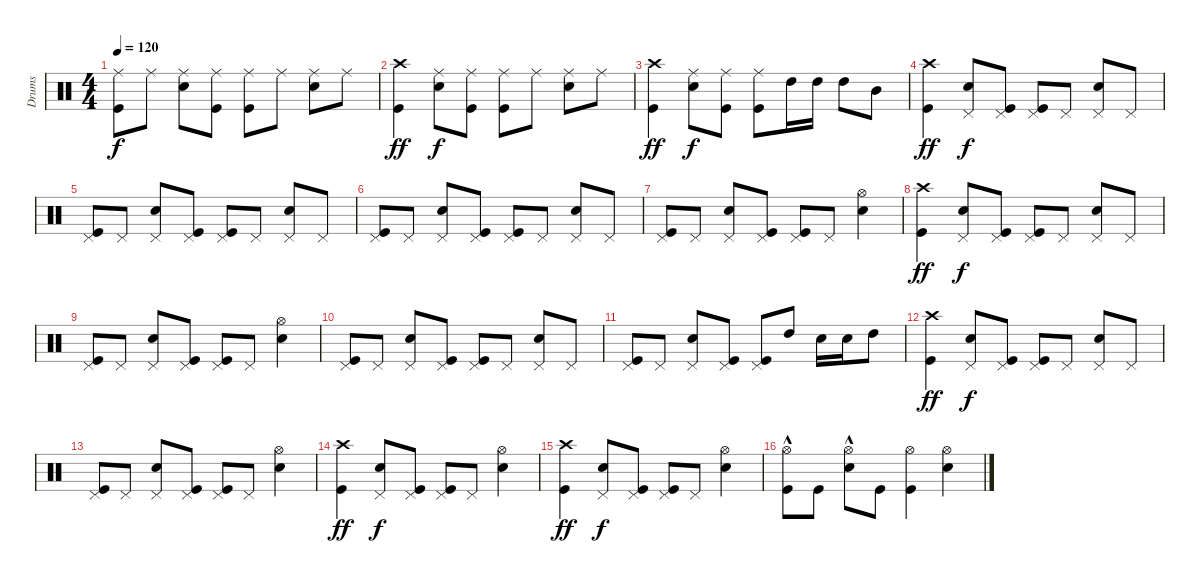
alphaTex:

\track ("Drums" "Drums") {instrument percussion}
\staff {score}
\articulation defaults
\ts (4 4)
\tempo 120
\clef neutral
\ks c
("Kick (hit)" "Ride (middle)").8{dy f} "Ride (middle)".8 ("Snare (hit) 2" "Ride (middle)").8 ("Kick (hit)" "Ride (middle)").8 ("Kick (hit)" "Ride (middle)").8 "Ride (middle)".8 ("Snare (hit) 2" "Ride (middle)").8 "Ride (middle)".8 |
("Kick (hit)" "Crash high (hit)").4{dy ff} ("Snare (hit) 2" "Ride (middle)").8{dy f} ("Kick (hit)" "Ride (middle)").8 ("Kick (hit)" "Ride (middle)").8 "Ride (middle)".8 ("Snare (hit) 2" "Ride (middle)").8 "Ride (middle)".8 |
("Kick (hit)" "Crash high (hit)").4{dy ff} ("Snare (hit) 2" "Ride (middle)").8{dy f} ("Kick (hit)" "Ride (middle)").8 ("Kick (hit)" "Ride (middle)").8 "High Tom (hit)".16 "High Tom (hit)".16 "High Tom (hit)".8 "Mid Tom (hit)".8 |
("Kick (hit)" "Crash high (hit)").4{dy ff} ("Snare (hit) 2" "Pedal Hi-Hat (hit)").8{dy f} ("Kick (hit)" "Pedal Hi-Hat (hit)").8 ("Kick (hit)" "Pedal Hi-Hat (hit)").8 "Pedal Hi-Hat (hit)".8 ("Snare (hit) 2" "Pedal Hi-Hat (hit)").8 "Pedal Hi-Hat (hit)".8 |
("Kick (hit)" "Pedal Hi-Hat (hit)").8 "Pedal Hi-Hat (hit)".8 ("Snare (hit) 2" "Pedal Hi-Hat (hit)").8 ("Kick (hit)" "Pedal Hi-Hat (hit)").8 ("Kick (hit)" "Pedal Hi-Hat (hit)").8 "Pedal Hi-Hat (hit)".8 ("Snare (hit) 2" "Pedal Hi-Hat (hit)").8 "Pedal Hi-Hat (hit)".8 |
("Kick (hit)" "Pedal Hi-Hat (hit)").8 "Pedal Hi-Hat (hit)".8 ("Snare (hit) 2" "Pedal Hi-Hat (hit)").8 ("Kick (hit)" "Pedal Hi-Hat (hit)").8 ("Kick (hit)" "Pedal Hi-Hat (hit)").8 "Pedal Hi-Hat (hit)".8 ("Snare (hit) 2" "Pedal Hi-Hat (hit)").8 "Pedal Hi-Hat (hit)".8 |
("Kick (hit)" "Pedal Hi-Hat (hit)").8 "Pedal Hi-Hat (hit)".8 ("Snare (hit) 2" "Pedal Hi-Hat (hit)").8 ("Kick (hit)" "Pedal Hi-Hat (hit)").8 ("Kick (hit)" "Pedal Hi-Hat (hit)").8 "Pedal Hi-Hat (hit)".8 ("Snare (hit) 2" "Hi-Hat (open)").4 |
("Kick (hit)" "Crash high (hit)").4{dy ff} ("Snare (hit) 2" "Pedal Hi-Hat (hit)").8{dy f} ("Kick (hit)" "Pedal Hi-Hat (hit)").8 ("Kick (hit)" "Pedal Hi-Hat (hit)").8 "Pedal Hi-Hat (hit)".8 ("Snare (hit) 2" "Pedal Hi-Hat (hit)").8 "Pedal Hi-Hat (hit)".8 |
("Kick (hit)" "Pedal Hi-Hat (hit)").8 "Pedal Hi-Hat (hit)".8 ("Snare (hit) 2" "Pedal Hi-Hat (hit)").8 ("Kick (hit)" "Pedal Hi-Hat (hit)").8 ("Kick (hit)" "Pedal Hi-Hat (hit)").8 "Pedal Hi-Hat (hit)".8 ("Snare (hit) 2" "Hi-Hat (open)").4 |
("Kick (hit)" "Pedal Hi-Hat (hit)").8 "Pedal Hi-Hat (hit)".8 ("Snare (hit) 2" "Pedal Hi-Hat (hit)").8 ("Kick (hit)" "Pedal Hi-Hat (hit)").8 ("Kick (hit)" "Pedal Hi-Hat (hit)").8 "Pedal Hi-Hat (hit)".8 ("Snare (hit) 2" "Pedal Hi-Hat (hit)").8 "Pedal Hi-Hat (hit)".8 |
("Kick (hit)" "Pedal Hi-Hat (hit)").8 "Pedal Hi-Hat (hit)".8 ("Snare (hit) 2" "Pedal Hi-Hat (hit)").8 ("Kick (hit)" "Pedal Hi-Hat (hit)").8 ("Kick (hit)" "Pedal Hi-Hat (hit)").8 "High Tom (hit)".8 "Snare (hit) 2".16 "Snare (hit) 2".16 "High Tom (hit)".8 |
("Kick (hit)" "Crash high (hit)").4{dy ff} ("Snare (hit) 2" "Pedal Hi-Hat (hit)").8{dy f} ("Kick (hit)" "Pedal Hi-Hat (hit)").8 ("Kick (hit)" "Pedal Hi-Hat (hit)").8 "Pedal Hi-Hat (hit)".8 ("Snare (hit) 2" "Pedal Hi-Hat (hit)").8 "Pedal Hi-Hat (hit)".8 |
("Kick (hit)" "Pedal Hi-Hat (hit)").8 "Pedal Hi-Hat (hit)".8 ("Snare (hit) 2" "Pedal Hi-Hat (hit)").8 ("Kick (hit)" "Pedal Hi-Hat (hit)").8 ("Kick (hit)" "Pedal Hi-Hat (hit)").8 "Pedal Hi-Hat (hit)".8 ("Snare (hit) 2" "Hi-Hat (open)").4 |
("Kick (hit)" "Crash high (hit)").4{dy ff} ("Snare (hit) 2" "Pedal Hi-Hat (hit)").8{dy f} ("Kick (hit)" "Pedal Hi-Hat (hit)").8 ("Kick (hit)" "Pedal Hi-Hat (hit)").8 "Pedal Hi-Hat (hit)".8 ("Snare (hit) 2" "Hi-Hat (open)").4 |
("Kick (hit)" "Crash high (hit)").4{dy ff} ("Snare (hit) 2" "Pedal Hi-Hat (hit)").8{dy f} ("Kick (hit)" "Pedal Hi-Hat (hit)").8 ("Kick (hit)" "Pedal Hi-Hat (hit)").8 "Pedal Hi-Hat (hit)".8 ("Snare (hit) 2" "Hi-Hat (open)").4 |
("Hi-Hat (open)"{hac} "Kick (hit)").8 "Kick (hit)".8 ("Hi-Hat (open)"{hac} "Snare (hit) 2").8 "Kick (hit)".8 ("Hi-Hat (open)" "Kick (hit)").4 ("Hi-Hat (open)" "Snare (hit) 2").4
